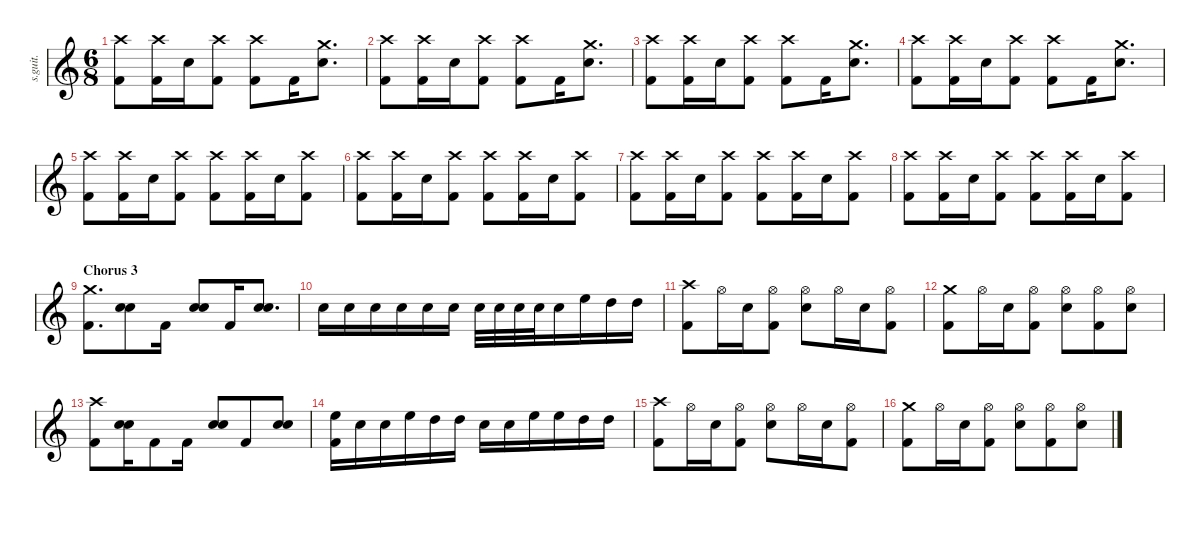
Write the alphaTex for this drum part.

\defaultSystemsLayout 4
\hideDynamics
\bracketExtendMode nobrackets
\track ("John Dolmayan" "s.guit.") {instrument percussion}
\staff {score}
\articulation defaults
\ts (6 8)
\tempo (123 hide)
\clef g2
\ks c
("Crash high (hit)" "Kick (hit) 2").8{lyrics (0 "") lyrics (1 "") lyrics (2 "") lyrics (3 "") lyrics (4 "") dy f} ("Crash high (hit)" "Kick (hit) 2").16{lyrics (0 "") lyrics (1 "") lyrics (2 "") lyrics (3 "") lyrics (4 "")} "Snare (hit) 2".16{lyrics (0 "") lyrics (1 "") lyrics (2 "") lyrics (3 "") lyrics (4 "")} ("Crash high (hit)" "Kick (hit) 2").8{lyrics (0 "") lyrics (1 "") lyrics (2 "") lyrics (3 "") lyrics (4 "")} ("Crash high (hit)" "Kick (hit) 2").8{lyrics (0 "") lyrics (1 "") lyrics (2 "") lyrics (3 "") lyrics (4 "")} "Kick (hit) 2".16{lyrics (0 "") lyrics (1 "") lyrics (2 "") lyrics (3 "") lyrics (4 "")} ("Crash medium (hit)" "Snare (hit) 2").8{d lyrics (0 "") lyrics (1 "") lyrics (2 "") lyrics (3 "") lyrics (4 "")} |
("Crash high (hit)" "Kick (hit) 2").8{lyrics (0 "") lyrics (1 "") lyrics (2 "") lyrics (3 "") lyrics (4 "")} ("Crash high (hit)" "Kick (hit) 2").16{lyrics (0 "") lyrics (1 "") lyrics (2 "") lyrics (3 "") lyrics (4 "")} "Snare (hit) 2".16{lyrics (0 "") lyrics (1 "") lyrics (2 "") lyrics (3 "") lyrics (4 "")} ("Crash high (hit)" "Kick (hit) 2").8{lyrics (0 "") lyrics (1 "") lyrics (2 "") lyrics (3 "") lyrics (4 "")} ("Crash high (hit)" "Kick (hit) 2").8{lyrics (0 "") lyrics (1 "") lyrics (2 "") lyrics (3 "") lyrics (4 "")} "Kick (hit) 2".16{lyrics (0 "") lyrics (1 "") lyrics (2 "") lyrics (3 "") lyrics (4 "")} ("Crash medium (hit)" "Snare (hit) 2").8{d lyrics (0 "") lyrics (1 "") lyrics (2 "") lyrics (3 "") lyrics (4 "")} |
("Crash high (hit)" "Kick (hit) 2").8{lyrics (0 "") lyrics (1 "") lyrics (2 "") lyrics (3 "") lyrics (4 "")} ("Crash high (hit)" "Kick (hit) 2").16{lyrics (0 "") lyrics (1 "") lyrics (2 "") lyrics (3 "") lyrics (4 "")} "Snare (hit) 2".16{lyrics (0 "") lyrics (1 "") lyrics (2 "") lyrics (3 "") lyrics (4 "")} ("Crash high (hit)" "Kick (hit) 2").8{lyrics (0 "") lyrics (1 "") lyrics (2 "") lyrics (3 "") lyrics (4 "")} ("Crash high (hit)" "Kick (hit) 2").8{lyrics (0 "") lyrics (1 "") lyrics (2 "") lyrics (3 "") lyrics (4 "")} "Kick (hit) 2".16{lyrics (0 "") lyrics (1 "") lyrics (2 "") lyrics (3 "") lyrics (4 "")} ("Crash medium (hit)" "Snare (hit) 2").8{d lyrics (0 "") lyrics (1 "") lyrics (2 "") lyrics (3 "") lyrics (4 "")} |
("Crash high (hit)" "Kick (hit) 2").8{lyrics (0 "") lyrics (1 "") lyrics (2 "") lyrics (3 "") lyrics (4 "")} ("Crash high (hit)" "Kick (hit) 2").16{lyrics (0 "") lyrics (1 "") lyrics (2 "") lyrics (3 "") lyrics (4 "")} "Snare (hit) 2".16{lyrics (0 "") lyrics (1 "") lyrics (2 "") lyrics (3 "") lyrics (4 "")} ("Crash high (hit)" "Kick (hit) 2").8{lyrics (0 "") lyrics (1 "") lyrics (2 "") lyrics (3 "") lyrics (4 "")} ("Crash high (hit)" "Kick (hit) 2").8{lyrics (0 "") lyrics (1 "") lyrics (2 "") lyrics (3 "") lyrics (4 "")} "Kick (hit) 2".16{lyrics (0 "") lyrics (1 "") lyrics (2 "") lyrics (3 "") lyrics (4 "")} ("Crash medium (hit)" "Snare (hit) 2").8{d lyrics (0 "") lyrics (1 "") lyrics (2 "") lyrics (3 "") lyrics (4 "")} |
("Crash high (hit)" "Kick (hit) 2").8{lyrics (0 "") lyrics (1 "") lyrics (2 "") lyrics (3 "") lyrics (4 "")} ("Crash high (hit)" "Kick (hit) 2").16{lyrics (0 "") lyrics (1 "") lyrics (2 "") lyrics (3 "") lyrics (4 "")} "Snare (hit) 2".16{lyrics (0 "") lyrics (1 "") lyrics (2 "") lyrics (3 "") lyrics (4 "")} ("Crash high (hit)" "Kick (hit) 2").8{lyrics (0 "") lyrics (1 "") lyrics (2 "") lyrics (3 "") lyrics (4 "")} ("Crash high (hit)" "Kick (hit) 2").8{lyrics (0 "") lyrics (1 "") lyrics (2 "") lyrics (3 "") lyrics (4 "")} ("Crash high (hit)" "Kick (hit) 2").16{lyrics (0 "") lyrics (1 "") lyrics (2 "") lyrics (3 "") lyrics (4 "")} "Snare (hit) 2".16{lyrics (0 "") lyrics (1 "") lyrics (2 "") lyrics (3 "") lyrics (4 "")} ("Crash high (hit)" "Kick (hit) 2").8{lyrics (0 "") lyrics (1 "") lyrics (2 "") lyrics (3 "") lyrics (4 "")} |
("Crash high (hit)" "Kick (hit) 2").8{lyrics (0 "") lyrics (1 "") lyrics (2 "") lyrics (3 "") lyrics (4 "")} ("Crash high (hit)" "Kick (hit) 2").16{lyrics (0 "") lyrics (1 "") lyrics (2 "") lyrics (3 "") lyrics (4 "")} "Snare (hit) 2".16{lyrics (0 "") lyrics (1 "") lyrics (2 "") lyrics (3 "") lyrics (4 "")} ("Crash high (hit)" "Kick (hit) 2").8{lyrics (0 "") lyrics (1 "") lyrics (2 "") lyrics (3 "") lyrics (4 "")} ("Crash high (hit)" "Kick (hit) 2").8{lyrics (0 "") lyrics (1 "") lyrics (2 "") lyrics (3 "") lyrics (4 "")} ("Crash high (hit)" "Kick (hit) 2").16{lyrics (0 "") lyrics (1 "") lyrics (2 "") lyrics (3 "") lyrics (4 "")} "Snare (hit) 2".16{lyrics (0 "") lyrics (1 "") lyrics (2 "") lyrics (3 "") lyrics (4 "")} ("Crash high (hit)" "Kick (hit) 2").8{lyrics (0 "") lyrics (1 "") lyrics (2 "") lyrics (3 "") lyrics (4 "")} |
("Crash high (hit)" "Kick (hit) 2").8{lyrics (0 "") lyrics (1 "") lyrics (2 "") lyrics (3 "") lyrics (4 "")} ("Crash high (hit)" "Kick (hit) 2").16{lyrics (0 "") lyrics (1 "") lyrics (2 "") lyrics (3 "") lyrics (4 "")} "Snare (hit) 2".16{lyrics (0 "") lyrics (1 "") lyrics (2 "") lyrics (3 "") lyrics (4 "")} ("Crash high (hit)" "Kick (hit) 2").8{lyrics (0 "") lyrics (1 "") lyrics (2 "") lyrics (3 "") lyrics (4 "")} ("Crash high (hit)" "Kick (hit) 2").8{lyrics (0 "") lyrics (1 "") lyrics (2 "") lyrics (3 "") lyrics (4 "")} ("Crash high (hit)" "Kick (hit) 2").16{lyrics (0 "") lyrics (1 "") lyrics (2 "") lyrics (3 "") lyrics (4 "")} "Snare (hit) 2".16{lyrics (0 "") lyrics (1 "") lyrics (2 "") lyrics (3 "") lyrics (4 "")} ("Crash high (hit)" "Kick (hit) 2").8{lyrics (0 "") lyrics (1 "") lyrics (2 "") lyrics (3 "") lyrics (4 "")} |
("Crash high (hit)" "Kick (hit) 2").8{lyrics (0 "") lyrics (1 "") lyrics (2 "") lyrics (3 "") lyrics (4 "")} ("Crash high (hit)" "Kick (hit) 2").16{lyrics (0 "") lyrics (1 "") lyrics (2 "") lyrics (3 "") lyrics (4 "")} "Snare (hit) 2".16{lyrics (0 "") lyrics (1 "") lyrics (2 "") lyrics (3 "") lyrics (4 "")} ("Crash high (hit)" "Kick (hit) 2").8{lyrics (0 "") lyrics (1 "") lyrics (2 "") lyrics (3 "") lyrics (4 "")} ("Crash high (hit)" "Kick (hit) 2").8{lyrics (0 "") lyrics (1 "") lyrics (2 "") lyrics (3 "") lyrics (4 "")} ("Crash high (hit)" "Kick (hit) 2").16{lyrics (0 "") lyrics (1 "") lyrics (2 "") lyrics (3 "") lyrics (4 "")} "Snare (hit) 2".16{lyrics (0 "") lyrics (1 "") lyrics (2 "") lyrics (3 "") lyrics (4 "")} ("Crash high (hit)" "Kick (hit) 2").8{lyrics (0 "") lyrics (1 "") lyrics (2 "") lyrics (3 "") lyrics (4 "")} |
\section ("" "Chorus 3")
\tempo (120 hide)
("Crash medium (hit)" "Kick (hit) 2").8{d lyrics (0 "") lyrics (1 "") lyrics (2 "") lyrics (3 "") lyrics (4 "")} ("Snare (hit) 2" "Snare (hit) 2").8{bu 30 lyrics (0 "") lyrics (1 "") lyrics (2 "") lyrics (3 "") lyrics (4 "")} "Kick (hit) 2".16{lyrics (0 "") lyrics (1 "") lyrics (2 "") lyrics (3 "") lyrics (4 "")} ("Snare (hit) 2" "Snare (hit) 2").8{bu 30 lyrics (0 "") lyrics (1 "") lyrics (2 "") lyrics (3 "") lyrics (4 "")} "Kick (hit) 2".16{lyrics (0 "") lyrics (1 "") lyrics (2 "") lyrics (3 "") lyrics (4 "")} ("Snare (hit) 2" "Snare (hit) 2").8{d bu 30 lyrics (0 "") lyrics (1 "") lyrics (2 "") lyrics (3 "") lyrics (4 "")} |
"Snare (hit) 2".16{lyrics (0 "") lyrics (1 "") lyrics (2 "") lyrics (3 "") lyrics (4 "")} "Snare (hit) 2".16{lyrics (0 "") lyrics (1 "") lyrics (2 "") lyrics (3 "") lyrics (4 "")} "Snare (hit) 2".16{lyrics (0 "") lyrics (1 "") lyrics (2 "") lyrics (3 "") lyrics (4 "")} "Snare (hit) 2".16{lyrics (0 "") lyrics (1 "") lyrics (2 "") lyrics (3 "") lyrics (4 "")} "Snare (hit) 2".16{lyrics (0 "") lyrics (1 "") lyrics (2 "") lyrics (3 "") lyrics (4 "")} "Snare (hit) 2".16{lyrics (0 "") lyrics (1 "") lyrics (2 "") lyrics (3 "") lyrics (4 "")} "Snare (hit) 2".32{lyrics (0 "") lyrics (1 "") lyrics (2 "") lyrics (3 "") lyrics (4 "")} "Snare (hit) 2".32{lyrics (0 "") lyrics (1 "") lyrics (2 "") lyrics (3 "") lyrics (4 "")} "Snare (hit) 2".32{lyrics (0 "") lyrics (1 "") lyrics (2 "") lyrics (3 "") lyrics (4 "")} "Snare (hit) 2".32{lyrics (0 "") lyrics (1 "") lyrics (2 "") lyrics (3 "") lyrics (4 "")} "Snare (hit) 2".16{lyrics (0 "") lyrics (1 "") lyrics (2 "") lyrics (3 "") lyrics (4 "")} "High Floor Tom (hit)".16{lyrics (0 "") lyrics (1 "") lyrics (2 "") lyrics (3 "") lyrics (4 "")} "High Tom (hit)".16{lyrics (0 "") lyrics (1 "") lyrics (2 "") lyrics (3 "") lyrics (4 "")} "High Tom (hit)".16{lyrics (0 "") lyrics (1 "") lyrics (2 "") lyrics (3 "") lyrics (4 "")} |
("Crash high (hit)" "Kick (hit) 2").8{lyrics (0 "") lyrics (1 "") lyrics (2 "") lyrics (3 "") lyrics (4 "")} "Hi-Hat (open)".16{lyrics (0 "") lyrics (1 "") lyrics (2 "") lyrics (3 "") lyrics (4 "")} "Snare (hit) 2".16{lyrics (0 "") lyrics (1 "") lyrics (2 "") lyrics (3 "") lyrics (4 "")} ("Hi-Hat (open)" "Kick (hit) 2").8{lyrics (0 "") lyrics (1 "") lyrics (2 "") lyrics (3 "") lyrics (4 "")} ("Hi-Hat (open)" "Snare (hit) 2").8{lyrics (0 "") lyrics (1 "") lyrics (2 "") lyrics (3 "") lyrics (4 "")} "Hi-Hat (open)".16{lyrics (0 "") lyrics (1 "") lyrics (2 "") lyrics (3 "") lyrics (4 "")} "Snare (hit) 2".16{lyrics (0 "") lyrics (1 "") lyrics (2 "") lyrics (3 "") lyrics (4 "")} ("Hi-Hat (open)" "Kick (hit) 2").8{lyrics (0 "") lyrics (1 "") lyrics (2 "") lyrics (3 "") lyrics (4 "")} |
("Crash medium (hit)" "Kick (hit) 2").8{lyrics (0 "") lyrics (1 "") lyrics (2 "") lyrics (3 "") lyrics (4 "")} "Hi-Hat (open)".16{lyrics (0 "") lyrics (1 "") lyrics (2 "") lyrics (3 "") lyrics (4 "")} "Snare (hit) 2".16{lyrics (0 "") lyrics (1 "") lyrics (2 "") lyrics (3 "") lyrics (4 "")} ("Hi-Hat (open)" "Kick (hit) 2").8{lyrics (0 "") lyrics (1 "") lyrics (2 "") lyrics (3 "") lyrics (4 "")} ("Hi-Hat (open)" "Snare (hit) 2").8{lyrics (0 "") lyrics (1 "") lyrics (2 "") lyrics (3 "") lyrics (4 "")} ("Hi-Hat (open)" "Kick (hit) 2").8{lyrics (0 "") lyrics (1 "") lyrics (2 "") lyrics (3 "") lyrics (4 "")} ("Hi-Hat (open)" "Snare (hit) 2").8{lyrics (0 "") lyrics (1 "") lyrics (2 "") lyrics (3 "") lyrics (4 "")} |
("Crash high (hit)" "Kick (hit) 2").8{lyrics (0 "") lyrics (1 "") lyrics (2 "") lyrics (3 "") lyrics (4 "")} ("Snare (hit) 2" "Snare (hit) 2").16{bu 30 lyrics (0 "") lyrics (1 "") lyrics (2 "") lyrics (3 "") lyrics (4 "")} "Kick (hit) 2".8{lyrics (0 "") lyrics (1 "") lyrics (2 "") lyrics (3 "") lyrics (4 "")} "Kick (hit) 2".16{lyrics (0 "") lyrics (1 "") lyrics (2 "") lyrics (3 "") lyrics (4 "")} ("Snare (hit) 2" "Snare (hit) 2").8{bu 30 lyrics (0 "") lyrics (1 "") lyrics (2 "") lyrics (3 "") lyrics (4 "")} "Kick (hit) 2".8{lyrics (0 "") lyrics (1 "") lyrics (2 "") lyrics (3 "") lyrics (4 "")} ("Snare (hit) 2" "Snare (hit) 2").8{bu 30 lyrics (0 "") lyrics (1 "") lyrics (2 "") lyrics (3 "") lyrics (4 "")} |
("High Floor Tom (hit)" "Kick (hit) 2").16{lyrics (0 "") lyrics (1 "") lyrics (2 "") lyrics (3 "") lyrics (4 "")} "Snare (hit) 2".16{lyrics (0 "") lyrics (1 "") lyrics (2 "") lyrics (3 "") lyrics (4 "")} "Snare (hit) 2".16{lyrics (0 "") lyrics (1 "") lyrics (2 "") lyrics (3 "") lyrics (4 "")} "High Floor Tom (hit)".16{lyrics (0 "") lyrics (1 "") lyrics (2 "") lyrics (3 "") lyrics (4 "")} "High Tom (hit)".16{lyrics (0 "") lyrics (1 "") lyrics (2 "") lyrics (3 "") lyrics (4 "")} "High Tom (hit)".16{lyrics (0 "") lyrics (1 "") lyrics (2 "") lyrics (3 "") lyrics (4 "")} "Snare (hit) 2".16{lyrics (0 "") lyrics (1 "") lyrics (2 "") lyrics (3 "") lyrics (4 "")} "Snare (hit) 2".16{lyrics (0 "") lyrics (1 "") lyrics (2 "") lyrics (3 "") lyrics (4 "")} "High Floor Tom (hit)".16{lyrics (0 "") lyrics (1 "") lyrics (2 "") lyrics (3 "") lyrics (4 "")} "High Floor Tom (hit)".16{lyrics (0 "") lyrics (1 "") lyrics (2 "") lyrics (3 "") lyrics (4 "")} "High Tom (hit)".16{lyrics (0 "") lyrics (1 "") lyrics (2 "") lyrics (3 "") lyrics (4 "")} "High Tom (hit)".16{lyrics (0 "") lyrics (1 "") lyrics (2 "") lyrics (3 "") lyrics (4 "")} |
("Crash high (hit)" "Kick (hit) 2").8{lyrics (0 "") lyrics (1 "") lyrics (2 "") lyrics (3 "") lyrics (4 "")} "Hi-Hat (open)".16{lyrics (0 "") lyrics (1 "") lyrics (2 "") lyrics (3 "") lyrics (4 "")} "Snare (hit) 2".16{lyrics (0 "") lyrics (1 "") lyrics (2 "") lyrics (3 "") lyrics (4 "")} ("Hi-Hat (open)" "Kick (hit) 2").8{lyrics (0 "") lyrics (1 "") lyrics (2 "") lyrics (3 "") lyrics (4 "")} ("Hi-Hat (open)" "Snare (hit) 2").8{lyrics (0 "") lyrics (1 "") lyrics (2 "") lyrics (3 "") lyrics (4 "")} "Hi-Hat (open)".16{lyrics (0 "") lyrics (1 "") lyrics (2 "") lyrics (3 "") lyrics (4 "")} "Snare (hit) 2".16{lyrics (0 "") lyrics (1 "") lyrics (2 "") lyrics (3 "") lyrics (4 "")} ("Hi-Hat (open)" "Kick (hit) 2").8{lyrics (0 "") lyrics (1 "") lyrics (2 "") lyrics (3 "") lyrics (4 "")} |
("Crash medium (hit)" "Kick (hit) 2").8{lyrics (0 "") lyrics (1 "") lyrics (2 "") lyrics (3 "") lyrics (4 "")} "Hi-Hat (open)".16{lyrics (0 "") lyrics (1 "") lyrics (2 "") lyrics (3 "") lyrics (4 "")} "Snare (hit) 2".16{lyrics (0 "") lyrics (1 "") lyrics (2 "") lyrics (3 "") lyrics (4 "")} ("Hi-Hat (open)" "Kick (hit) 2").8{lyrics (0 "") lyrics (1 "") lyrics (2 "") lyrics (3 "") lyrics (4 "")} ("Hi-Hat (open)" "Snare (hit) 2").8{lyrics (0 "") lyrics (1 "") lyrics (2 "") lyrics (3 "") lyrics (4 "")} ("Hi-Hat (open)" "Kick (hit) 2").8{lyrics (0 "") lyrics (1 "") lyrics (2 "") lyrics (3 "") lyrics (4 "")} ("Hi-Hat (open)" "Snare (hit) 2").8{lyrics (0 "") lyrics (1 "") lyrics (2 "") lyrics (3 "") lyrics (4 "")}
